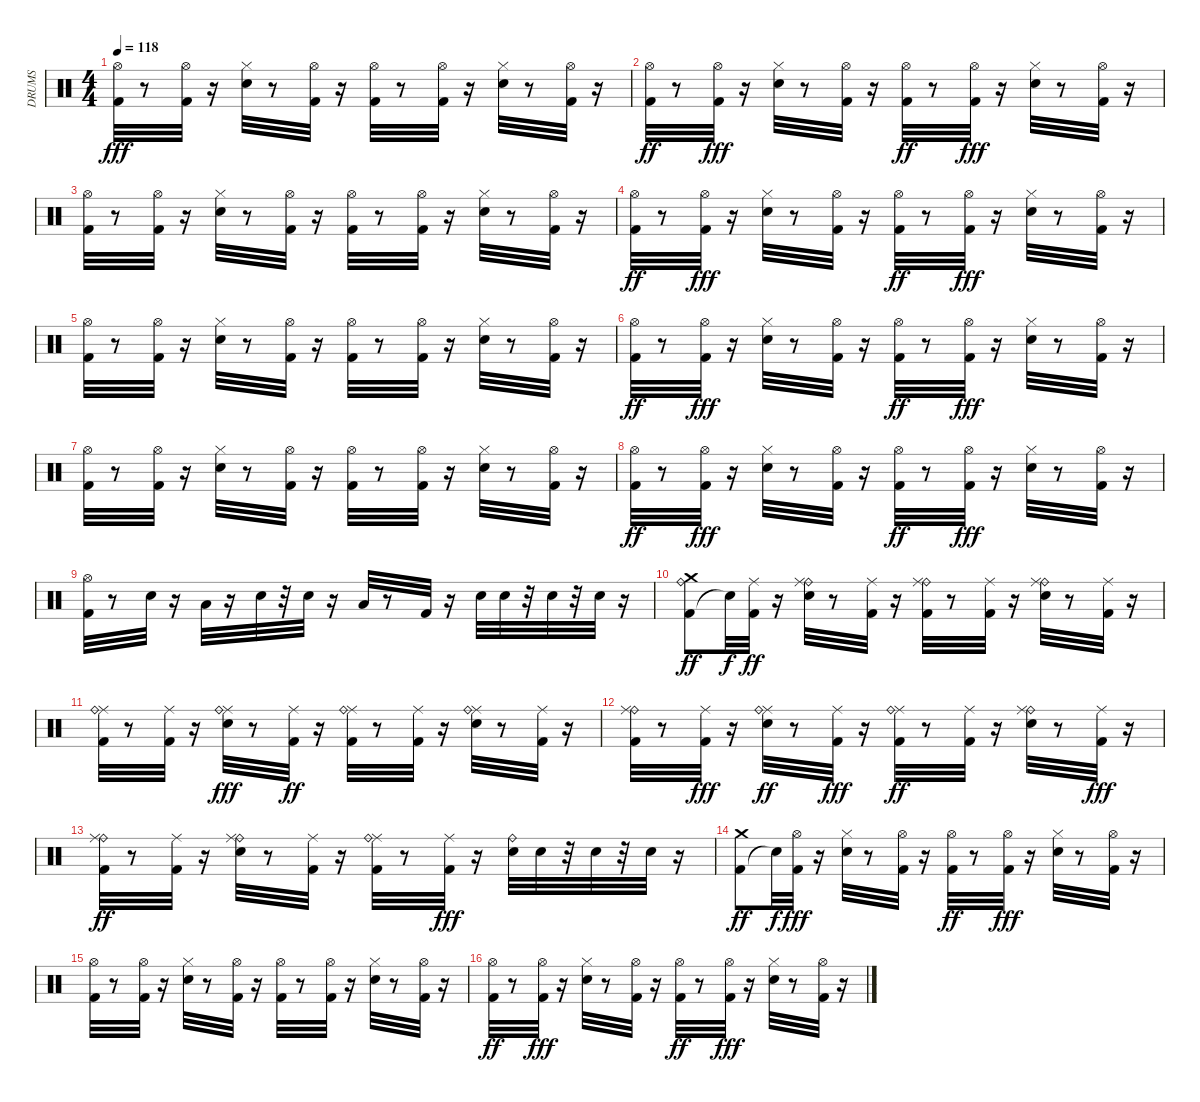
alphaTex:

\track ("DRUMS" "DRUMS") {instrument percussion}
\staff {score}
\articulation defaults
\ts (4 4)
\tempo 118
\clef neutral
\ks c
("Hi-Hat (open)" "Kick (hit) 2").32{dy fff} r.8 ("Hi-Hat (open)" "Kick (hit) 2").32 r.16 ("Hi-Hat (closed)" "Snare (hit) 2").32 r.8 ("Hi-Hat (open)" "Kick (hit) 2").32 r.16 ("Hi-Hat (open)" "Kick (hit) 2").32 r.8 ("Hi-Hat (open)" "Kick (hit) 2").32 r.16 ("Hi-Hat (closed)" "Snare (hit) 2").32 r.8 ("Hi-Hat (open)" "Kick (hit) 2").32 r.16 |
("Kick (hit) 2" "Hi-Hat (open)").32{dy ff} r.8 ("Hi-Hat (open)" "Kick (hit) 2").32{dy fff} r.16 ("Hi-Hat (closed)" "Snare (hit) 2").32 r.8 ("Kick (hit) 2" "Hi-Hat (open)").32 r.16 ("Kick (hit) 2" "Hi-Hat (open)").32{dy ff} r.8 ("Hi-Hat (open)" "Kick (hit) 2").32{dy fff} r.16 ("Hi-Hat (closed)" "Snare (hit) 2").32 r.8 ("Hi-Hat (open)" "Kick (hit) 2").32 r.16 |
("Hi-Hat (open)" "Kick (hit) 2").32 r.8 ("Hi-Hat (open)" "Kick (hit) 2").32 r.16 ("Snare (hit) 2" "Hi-Hat (closed)").32 r.8 ("Hi-Hat (open)" "Kick (hit) 2").32 r.16 ("Hi-Hat (open)" "Kick (hit) 2").32 r.8 ("Hi-Hat (open)" "Kick (hit) 2").32 r.16 ("Hi-Hat (closed)" "Snare (hit) 2").32 r.8 ("Hi-Hat (open)" "Kick (hit) 2").32 r.16 |
("Kick (hit) 2" "Hi-Hat (open)").32{dy ff} r.8 ("Hi-Hat (open)" "Kick (hit) 2").32{dy fff} r.16 ("Hi-Hat (closed)" "Snare (hit) 2").32 r.8 ("Kick (hit) 2" "Hi-Hat (open)").32 r.16 ("Kick (hit) 2" "Hi-Hat (open)").32{dy ff} r.8 ("Hi-Hat (open)" "Kick (hit) 2").32{dy fff} r.16 ("Snare (hit) 2" "Hi-Hat (closed)").32 r.8 ("Hi-Hat (open)" "Kick (hit) 2").32 r.16 |
("Hi-Hat (open)" "Kick (hit) 2").32 r.8 ("Hi-Hat (open)" "Kick (hit) 2").32 r.16 ("Hi-Hat (closed)" "Snare (hit) 2").32 r.8 ("Hi-Hat (open)" "Kick (hit) 2").32 r.16 ("Hi-Hat (open)" "Kick (hit) 2").32 r.8 ("Hi-Hat (open)" "Kick (hit) 2").32 r.16 ("Hi-Hat (closed)" "Snare (hit) 2").32 r.8 ("Hi-Hat (open)" "Kick (hit) 2").32 r.16 |
("Kick (hit) 2" "Hi-Hat (open)").32{dy ff} r.8 ("Hi-Hat (open)" "Kick (hit) 2").32{dy fff} r.16 ("Hi-Hat (closed)" "Snare (hit) 2").32 r.8 ("Kick (hit) 2" "Hi-Hat (open)").32 r.16 ("Kick (hit) 2" "Hi-Hat (open)").32{dy ff} r.8 ("Hi-Hat (open)" "Kick (hit) 2").32{dy fff} r.16 ("Hi-Hat (closed)" "Snare (hit) 2").32 r.8 ("Hi-Hat (open)" "Kick (hit) 2").32 r.16 |
("Hi-Hat (open)" "Kick (hit) 2").32 r.8 ("Hi-Hat (open)" "Kick (hit) 2").32 r.16 ("Snare (hit) 2" "Hi-Hat (closed)").32 r.8 ("Hi-Hat (open)" "Kick (hit) 2").32 r.16 ("Hi-Hat (open)" "Kick (hit) 2").32 r.8 ("Hi-Hat (open)" "Kick (hit) 2").32 r.16 ("Hi-Hat (closed)" "Snare (hit) 2").32 r.8 ("Hi-Hat (open)" "Kick (hit) 2").32 r.16 |
("Kick (hit) 2" "Hi-Hat (open)").32{dy ff} r.8 ("Hi-Hat (open)" "Kick (hit) 2").32{dy fff} r.16 ("Hi-Hat (closed)" "Snare (hit) 2").32 r.8 ("Kick (hit) 2" "Hi-Hat (open)").32 r.16 ("Kick (hit) 2" "Hi-Hat (open)").32{dy ff} r.8 ("Hi-Hat (open)" "Kick (hit) 2").32{dy fff} r.16 ("Snare (hit) 2" "Hi-Hat (closed)").32 r.8 ("Hi-Hat (open)" "Kick (hit) 2").32 r.16 |
("Hi-Hat (open)" "Kick (hit) 2").32 r.8 "Snare (hit) 2".32 r.16 "Low Tom (hit)".32 r.16 "Snare (hit) 2".32 r.32 "Snare (hit) 2".32 r.16 "Low Floor Tom (hit)".32 r.8 "Kick (hit) 2".32 r.16 "Snare (hit) 2".32 "Snare (hit) 2".32 r.32 "Snare (hit) 2".32 r.32 "Snare (hit) 2".32 r.16 |
("Kick (hit) 2" "Crash medium (hit)" "Ride (bell)").8{dy ff} "Snare (hit)"{t}.32{dy f} ("Kick (hit) 2" "Ride (middle)").32{dy ff} r.16 ("Ride (bell)" "Snare (hit) 2" "Ride (middle)").32 r.8 ("Kick (hit) 2" "Ride (middle)").32 r.16 ("Ride (bell)" "Kick (hit) 2" "Ride (middle)").32 r.8 ("Kick (hit) 2" "Ride (middle)").32 r.16 ("Ride (bell)" "Snare (hit) 2" "Ride (middle)").32 r.8 ("Kick (hit) 2" "Ride (middle)").32 r.16 |
("Kick (hit) 2" "Ride (middle)" "Ride (bell)").32 r.8 ("Kick (hit) 2" "Ride (middle)").32 r.16 ("Ride (middle)" "Snare (hit) 2" "Ride (bell)").32{dy fff} r.8 ("Kick (hit) 2" "Ride (middle)").32{dy ff} r.16 ("Kick (hit) 2" "Ride (middle)" "Ride (bell)").32 r.8 ("Kick (hit) 2" "Ride (middle)").32 r.16 ("Snare (hit) 2" "Ride (middle)" "Ride (bell)").32 r.8 ("Kick (hit) 2" "Ride (middle)").32 r.16 |
("Ride (bell)" "Kick (hit) 2" "Ride (middle)").32 r.8 ("Ride (middle)" "Kick (hit) 2").32{dy fff} r.16 ("Snare (hit) 2" "Ride (middle)" "Ride (bell)").32{dy ff} r.8 ("Ride (middle)" "Kick (hit) 2").32{dy fff} r.16 ("Kick (hit) 2" "Ride (middle)" "Ride (bell)").32{dy ff} r.8 ("Kick (hit) 2" "Ride (middle)").32 r.16 ("Ride (bell)" "Snare (hit) 2" "Ride (middle)").32 r.8 ("Ride (middle)" "Kick (hit) 2").32{dy fff} r.16 |
("Ride (bell)" "Kick (hit) 2" "Ride (middle)").32{dy ff} r.8 ("Kick (hit) 2" "Ride (middle)").32 r.16 ("Ride (bell)" "Snare (hit) 2" "Ride (middle)").32 r.8 ("Kick (hit) 2" "Ride (middle)").32 r.16 ("Kick (hit) 2" "Ride (middle)" "Ride (bell)").32 r.8 ("Ride (middle)" "Kick (hit) 2").32{dy fff} r.16 ("Ride (bell)" "Snare (hit) 2").32 "Snare (hit) 2".32 r.32 "Snare (hit) 2".32 r.32 "Snare (hit) 2".32 r.16 |
("Kick (hit) 2" "Crash medium (hit)").8{dy ff} "Snare (hit)"{t}.32{dy f} ("Hi-Hat (open)" "Kick (hit) 2").32{dy fff} r.16 ("Hi-Hat (closed)" "Snare (hit) 2").32 r.8 ("Kick (hit) 2" "Hi-Hat (open)").32 r.16 ("Kick (hit) 2" "Hi-Hat (open)").32{dy ff} r.8 ("Hi-Hat (open)" "Kick (hit) 2").32{dy fff} r.16 ("Hi-Hat (closed)" "Snare (hit) 2").32 r.8 ("Hi-Hat (open)" "Kick (hit) 2").32 r.16 |
("Hi-Hat (open)" "Kick (hit) 2").32 r.8 ("Kick (hit) 2" "Hi-Hat (open)").32 r.16 ("Snare (hit) 2" "Hi-Hat (closed)").32 r.8 ("Hi-Hat (open)" "Kick (hit) 2").32 r.16 ("Hi-Hat (open)" "Kick (hit) 2").32 r.8 ("Hi-Hat (open)" "Kick (hit) 2").32 r.16 ("Hi-Hat (closed)" "Snare (hit) 2").32 r.8 ("Hi-Hat (open)" "Kick (hit) 2").32 r.16 |
("Kick (hit) 2" "Hi-Hat (open)").32{dy ff} r.8 ("Hi-Hat (open)" "Kick (hit) 2").32{dy fff} r.16 ("Hi-Hat (closed)" "Snare (hit) 2").32 r.8 ("Kick (hit) 2" "Hi-Hat (open)").32 r.16 ("Kick (hit) 2" "Hi-Hat (open)").32{dy ff} r.8 ("Hi-Hat (open)" "Kick (hit) 2").32{dy fff} r.16 ("Snare (hit) 2" "Hi-Hat (closed)").32 r.8 ("Hi-Hat (open)" "Kick (hit) 2").32 r.16
